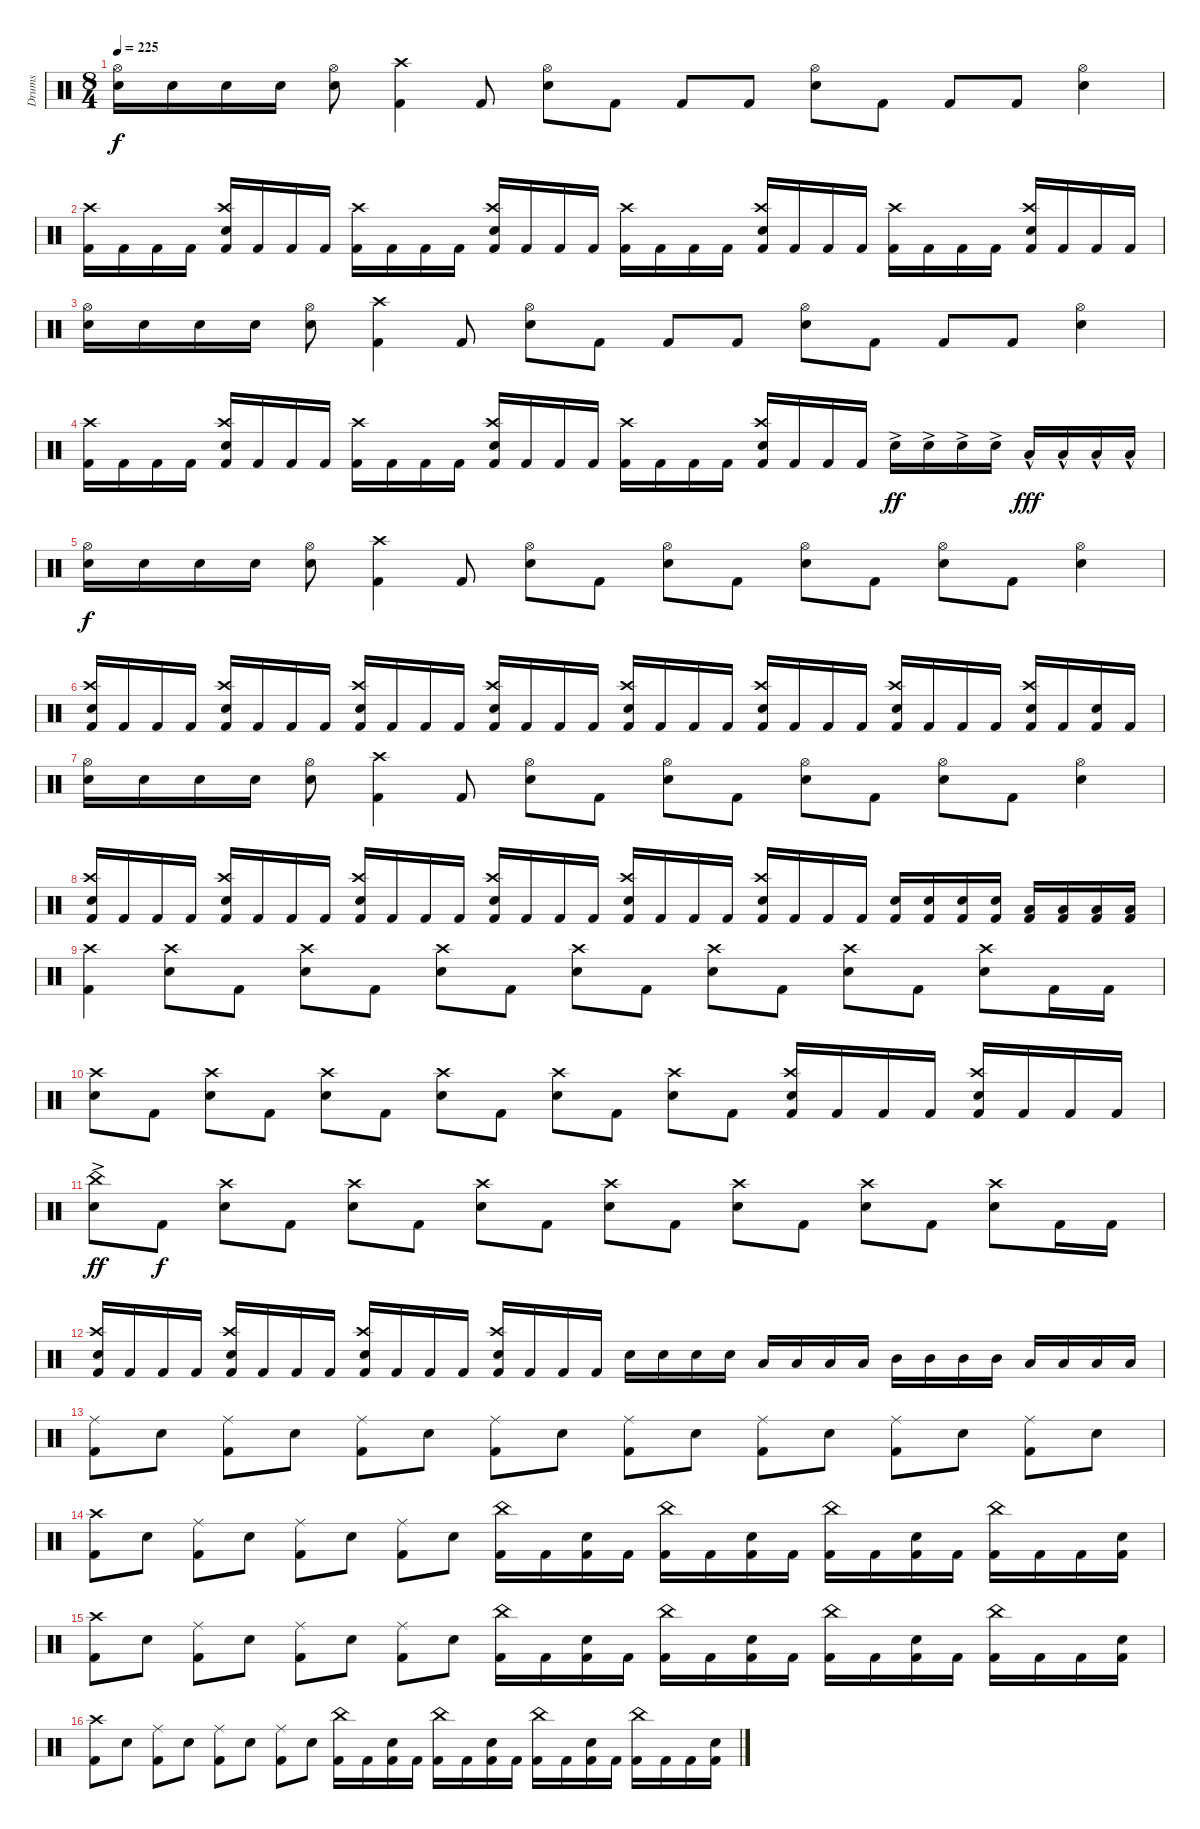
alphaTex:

\track ("Drums" "Drums") {instrument percussion}
\staff {score}
\articulation defaults
\ts (8 4)
\tempo 225
\clef neutral
\ks c
("Hi-Hat (open)" "Electric Snare (hit)").16{dy f} "Electric Snare (hit)".16 "Electric Snare (hit)".16 "Electric Snare (hit)".16 ("Hi-Hat (open)" "Electric Snare (hit)").8 ("Crash high (hit)" "Kick (hit) 2").4 "Kick (hit) 2".8 ("Hi-Hat (open)" "Electric Snare (hit)").8 "Kick (hit) 2".8 "Kick (hit) 2".8 "Kick (hit) 2".8 ("Hi-Hat (open)" "Electric Snare (hit)").8 "Kick (hit) 2".8 "Kick (hit) 2".8 "Kick (hit) 2".8 ("Hi-Hat (open)" "Electric Snare (hit)").4 |
("Crash high (hit)" "Kick (hit) 2").16 "Kick (hit) 2".16 "Kick (hit) 2".16 "Kick (hit) 2".16 ("Crash high (hit)" "Electric Snare (hit)" "Kick (hit) 2").16 "Kick (hit) 2".16 "Kick (hit) 2".16 "Kick (hit) 2".16 ("Crash high (hit)" "Kick (hit) 2").16 "Kick (hit) 2".16 "Kick (hit) 2".16 "Kick (hit) 2".16 ("Crash high (hit)" "Electric Snare (hit)" "Kick (hit) 2").16 "Kick (hit) 2".16 "Kick (hit) 2".16 "Kick (hit) 2".16 ("Crash high (hit)" "Kick (hit) 2").16 "Kick (hit) 2".16 "Kick (hit) 2".16 "Kick (hit) 2".16 ("Crash high (hit)" "Electric Snare (hit)" "Kick (hit) 2").16 "Kick (hit) 2".16 "Kick (hit) 2".16 "Kick (hit) 2".16 ("Crash high (hit)" "Kick (hit) 2").16 "Kick (hit) 2".16 "Kick (hit) 2".16 "Kick (hit) 2".16 ("Crash high (hit)" "Electric Snare (hit)" "Kick (hit) 2").16 "Kick (hit) 2".16 "Kick (hit) 2".16 "Kick (hit) 2".16 |
("Hi-Hat (open)" "Electric Snare (hit)").16 "Electric Snare (hit)".16 "Electric Snare (hit)".16 "Electric Snare (hit)".16 ("Hi-Hat (open)" "Electric Snare (hit)").8 ("Crash high (hit)" "Kick (hit) 2").4 "Kick (hit) 2".8 ("Hi-Hat (open)" "Electric Snare (hit)").8 "Kick (hit) 2".8 "Kick (hit) 2".8 "Kick (hit) 2".8 ("Hi-Hat (open)" "Electric Snare (hit)").8 "Kick (hit) 2".8 "Kick (hit) 2".8 "Kick (hit) 2".8 ("Hi-Hat (open)" "Electric Snare (hit)").4 |
("Crash high (hit)" "Kick (hit) 2").16 "Kick (hit) 2".16 "Kick (hit) 2".16 "Kick (hit) 2".16 ("Crash high (hit)" "Electric Snare (hit)" "Kick (hit) 2").16 "Kick (hit) 2".16 "Kick (hit) 2".16 "Kick (hit) 2".16 ("Crash high (hit)" "Kick (hit) 2").16 "Kick (hit) 2".16 "Kick (hit) 2".16 "Kick (hit) 2".16 ("Crash high (hit)" "Electric Snare (hit)" "Kick (hit) 2").16 "Kick (hit) 2".16 "Kick (hit) 2".16 "Kick (hit) 2".16 ("Crash high (hit)" "Kick (hit) 2").16 "Kick (hit) 2".16 "Kick (hit) 2".16 "Kick (hit) 2".16 ("Crash high (hit)" "Electric Snare (hit)" "Kick (hit) 2").16 "Kick (hit) 2".16 "Kick (hit) 2".16 "Kick (hit) 2".16 "Electric Snare (hit)"{ac}.16{dy ff} "Electric Snare (hit)"{ac}.16 "Electric Snare (hit)"{ac}.16 "Electric Snare (hit)"{ac}.16 "Low Tom (hit)"{hac}.16{dy fff} "Low Tom (hit)"{hac}.16 "Low Tom (hit)"{hac}.16 "Low Tom (hit)"{hac}.16 |
("Hi-Hat (open)" "Electric Snare (hit)").16{dy f} "Electric Snare (hit)".16 "Electric Snare (hit)".16 "Electric Snare (hit)".16 ("Hi-Hat (open)" "Electric Snare (hit)").8 ("Crash high (hit)" "Kick (hit) 2").4 "Kick (hit) 2".8 ("Hi-Hat (open)" "Electric Snare (hit)").8 "Kick (hit) 2".8 ("Hi-Hat (open)" "Electric Snare (hit)").8 "Kick (hit) 2".8 ("Hi-Hat (open)" "Electric Snare (hit)").8 "Kick (hit) 2".8 ("Hi-Hat (open)" "Electric Snare (hit)").8 "Kick (hit) 2".8 ("Hi-Hat (open)" "Electric Snare (hit)").4 |
("Crash high (hit)" "Electric Snare (hit)" "Kick (hit) 2").16 "Kick (hit) 2".16 "Kick (hit) 2".16 "Kick (hit) 2".16 ("Crash high (hit)" "Electric Snare (hit)" "Kick (hit) 2").16 "Kick (hit) 2".16 "Kick (hit) 2".16 "Kick (hit) 2".16 ("Crash high (hit)" "Electric Snare (hit)" "Kick (hit) 2").16 "Kick (hit) 2".16 "Kick (hit) 2".16 "Kick (hit) 2".16 ("Crash high (hit)" "Electric Snare (hit)" "Kick (hit) 2").16 "Kick (hit) 2".16 "Kick (hit) 2".16 "Kick (hit) 2".16 ("Crash high (hit)" "Electric Snare (hit)" "Kick (hit) 2").16 "Kick (hit) 2".16 "Kick (hit) 2".16 "Kick (hit) 2".16 ("Crash high (hit)" "Electric Snare (hit)" "Kick (hit) 2").16 "Kick (hit) 2".16 "Kick (hit) 2".16 "Kick (hit) 2".16 ("Crash high (hit)" "Electric Snare (hit)" "Kick (hit) 2").16 "Kick (hit) 2".16 "Kick (hit) 2".16 "Kick (hit) 2".16 ("Crash high (hit)" "Electric Snare (hit)" "Kick (hit) 2").16 "Kick (hit) 2".16 ("Electric Snare (hit)" "Kick (hit) 2").16 "Kick (hit) 2".16 |
("Hi-Hat (open)" "Electric Snare (hit)").16 "Electric Snare (hit)".16 "Electric Snare (hit)".16 "Electric Snare (hit)".16 ("Hi-Hat (open)" "Electric Snare (hit)").8 ("Crash high (hit)" "Kick (hit) 2").4 "Kick (hit) 2".8 ("Hi-Hat (open)" "Electric Snare (hit)").8 "Kick (hit) 2".8 ("Hi-Hat (open)" "Electric Snare (hit)").8 "Kick (hit) 2".8 ("Hi-Hat (open)" "Electric Snare (hit)").8 "Kick (hit) 2".8 ("Hi-Hat (open)" "Electric Snare (hit)").8 "Kick (hit) 2".8 ("Hi-Hat (open)" "Electric Snare (hit)").4 |
("Crash high (hit)" "Electric Snare (hit)" "Kick (hit) 2").16 "Kick (hit) 2".16 "Kick (hit) 2".16 "Kick (hit) 2".16 ("Crash high (hit)" "Electric Snare (hit)" "Kick (hit) 2").16 "Kick (hit) 2".16 "Kick (hit) 2".16 "Kick (hit) 2".16 ("Crash high (hit)" "Electric Snare (hit)" "Kick (hit) 2").16 "Kick (hit) 2".16 "Kick (hit) 2".16 "Kick (hit) 2".16 ("Crash high (hit)" "Electric Snare (hit)" "Kick (hit) 2").16 "Kick (hit) 2".16 "Kick (hit) 2".16 "Kick (hit) 2".16 ("Crash high (hit)" "Electric Snare (hit)" "Kick (hit) 2").16 "Kick (hit) 2".16 "Kick (hit) 2".16 "Kick (hit) 2".16 ("Crash high (hit)" "Electric Snare (hit)" "Kick (hit) 2").16 "Kick (hit) 2".16 "Kick (hit) 2".16 "Kick (hit) 2".16 ("Electric Snare (hit)" "Kick (hit) 2").16 ("Electric Snare (hit)" "Kick (hit) 2").16 ("Electric Snare (hit)" "Kick (hit) 2").16 ("Electric Snare (hit)" "Kick (hit) 2").16 ("Low Tom (hit)" "Kick (hit) 2").16 ("Low Tom (hit)" "Kick (hit) 2").16 ("Low Tom (hit)" "Kick (hit) 2").16 ("Low Tom (hit)" "Kick (hit) 2").16 |
("Crash high (hit)" "Kick (hit) 2").4 ("Crash high (hit)" "Electric Snare (hit)").8 "Kick (hit) 2".8 ("Crash high (hit)" "Electric Snare (hit)").8 "Kick (hit) 2".8 ("Crash high (hit)" "Electric Snare (hit)").8 "Kick (hit) 2".8 ("Crash high (hit)" "Electric Snare (hit)").8 "Kick (hit) 2".8 ("Crash high (hit)" "Electric Snare (hit)").8 "Kick (hit) 2".8 ("Crash high (hit)" "Electric Snare (hit)").8 "Kick (hit) 2".8 ("Crash high (hit)" "Electric Snare (hit)").8 "Kick (hit) 2".16 "Kick (hit) 2".16 |
("Crash high (hit)" "Electric Snare (hit)").8 "Kick (hit) 2".8 ("Crash high (hit)" "Electric Snare (hit)").8 "Kick (hit) 2".8 ("Crash high (hit)" "Electric Snare (hit)").8 "Kick (hit) 2".8 ("Crash high (hit)" "Electric Snare (hit)").8 "Kick (hit) 2".8 ("Crash high (hit)" "Electric Snare (hit)").8 "Kick (hit) 2".8 ("Crash high (hit)" "Electric Snare (hit)").8 "Kick (hit) 2".8 ("Crash high (hit)" "Electric Snare (hit)" "Kick (hit) 2").16 "Kick (hit) 2".16 "Kick (hit) 2".16 "Kick (hit) 2".16 ("Crash high (hit)" "Electric Snare (hit)" "Kick (hit) 2").16 "Kick (hit) 2".16 "Kick (hit) 2".16 "Kick (hit) 2".16 |
("China (hit)"{ac} "Electric Snare (hit)").8{dy ff} "Kick (hit) 2".8{dy f} ("Crash high (hit)" "Electric Snare (hit)").8 "Kick (hit) 2".8 ("Crash high (hit)" "Electric Snare (hit)").8 "Kick (hit) 2".8 ("Crash high (hit)" "Electric Snare (hit)").8 "Kick (hit) 2".8 ("Crash high (hit)" "Electric Snare (hit)").8 "Kick (hit) 2".8 ("Crash high (hit)" "Electric Snare (hit)").8 "Kick (hit) 2".8 ("Crash high (hit)" "Electric Snare (hit)").8 "Kick (hit) 2".8 ("Crash high (hit)" "Electric Snare (hit)").8 "Kick (hit) 2".16 "Kick (hit) 2".16 |
("Crash high (hit)" "Electric Snare (hit)" "Kick (hit) 2").16 "Kick (hit) 2".16 "Kick (hit) 2".16 "Kick (hit) 2".16 ("Crash high (hit)" "Electric Snare (hit)" "Kick (hit) 2").16 "Kick (hit) 2".16 "Kick (hit) 2".16 "Kick (hit) 2".16 ("Crash high (hit)" "Electric Snare (hit)" "Kick (hit) 2").16 "Kick (hit) 2".16 "Kick (hit) 2".16 "Kick (hit) 2".16 ("Crash high (hit)" "Electric Snare (hit)" "Kick (hit) 2").16 "Kick (hit) 2".16 "Kick (hit) 2".16 "Kick (hit) 2".16 "Electric Snare (hit)".16 "Electric Snare (hit)".16 "Electric Snare (hit)".16 "Electric Snare (hit)".16 "Low Tom (hit)".16 "Low Tom (hit)".16 "Low Tom (hit)".16 "Low Tom (hit)".16 "Mid Tom (hit)".16 "Mid Tom (hit)".16 "Mid Tom (hit)".16 "Mid Tom (hit)".16 "Low Floor Tom (hit)".16 "Low Floor Tom (hit)".16 "Low Floor Tom (hit)".16 "Low Floor Tom (hit)".16 |
("Ride (middle)" "Kick (hit) 2").8 "Electric Snare (hit)".8 ("Ride (middle)" "Kick (hit) 2").8 "Electric Snare (hit)".8 ("Ride (middle)" "Kick (hit) 2").8 "Electric Snare (hit)".8 ("Ride (middle)" "Kick (hit) 2").8 "Electric Snare (hit)".8 ("Ride (middle)" "Kick (hit) 2").8 "Electric Snare (hit)".8 ("Ride (middle)" "Kick (hit) 2").8 "Electric Snare (hit)".8 ("Ride (middle)" "Kick (hit) 2").8 "Electric Snare (hit)".8 ("Ride (middle)" "Kick (hit) 2").8 "Electric Snare (hit)".8 |
("Crash high (hit)" "Kick (hit) 2").8 "Electric Snare (hit)".8 ("Ride (middle)" "Kick (hit) 2").8 "Electric Snare (hit)".8 ("Ride (middle)" "Kick (hit) 2").8 "Electric Snare (hit)".8 ("Ride (middle)" "Kick (hit) 2").8 "Electric Snare (hit)".8 ("China (hit)" "Kick (hit) 2").16 "Kick (hit) 2".16 ("Electric Snare (hit)" "Kick (hit) 2").16 "Kick (hit) 2".16 ("China (hit)" "Kick (hit) 2").16 "Kick (hit) 2".16 ("Electric Snare (hit)" "Kick (hit) 2").16 "Kick (hit) 2".16 ("China (hit)" "Kick (hit) 2").16 "Kick (hit) 2".16 ("Electric Snare (hit)" "Kick (hit) 2").16 "Kick (hit) 2".16 ("China (hit)" "Kick (hit) 2").16 "Kick (hit) 2".16 "Kick (hit) 2".16 ("Electric Snare (hit)" "Kick (hit) 2").16 |
("Crash high (hit)" "Kick (hit) 2").8 "Electric Snare (hit)".8 ("Ride (middle)" "Kick (hit) 2").8 "Electric Snare (hit)".8 ("Ride (middle)" "Kick (hit) 2").8 "Electric Snare (hit)".8 ("Ride (middle)" "Kick (hit) 2").8 "Electric Snare (hit)".8 ("China (hit)" "Kick (hit) 2").16 "Kick (hit) 2".16 ("Electric Snare (hit)" "Kick (hit) 2").16 "Kick (hit) 2".16 ("China (hit)" "Kick (hit) 2").16 "Kick (hit) 2".16 ("Electric Snare (hit)" "Kick (hit) 2").16 "Kick (hit) 2".16 ("China (hit)" "Kick (hit) 2").16 "Kick (hit) 2".16 ("Electric Snare (hit)" "Kick (hit) 2").16 "Kick (hit) 2".16 ("China (hit)" "Kick (hit) 2").16 "Kick (hit) 2".16 "Kick (hit) 2".16 ("Electric Snare (hit)" "Kick (hit) 2").16 |
("Crash high (hit)" "Kick (hit) 2").8 "Electric Snare (hit)".8 ("Ride (middle)" "Kick (hit) 2").8 "Electric Snare (hit)".8 ("Ride (middle)" "Kick (hit) 2").8 "Electric Snare (hit)".8 ("Ride (middle)" "Kick (hit) 2").8 "Electric Snare (hit)".8 ("China (hit)" "Kick (hit) 2").16 "Kick (hit) 2".16 ("Electric Snare (hit)" "Kick (hit) 2").16 "Kick (hit) 2".16 ("China (hit)" "Kick (hit) 2").16 "Kick (hit) 2".16 ("Electric Snare (hit)" "Kick (hit) 2").16 "Kick (hit) 2".16 ("China (hit)" "Kick (hit) 2").16 "Kick (hit) 2".16 ("Electric Snare (hit)" "Kick (hit) 2").16 "Kick (hit) 2".16 ("China (hit)" "Kick (hit) 2").16 "Kick (hit) 2".16 "Kick (hit) 2".16 ("Electric Snare (hit)" "Kick (hit) 2").16
